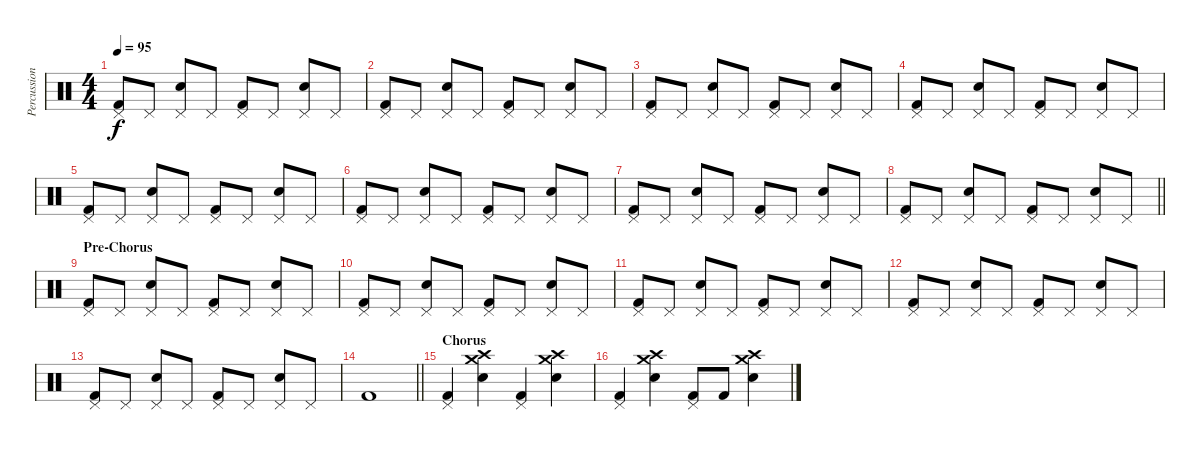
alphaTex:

\track ("Percussion" "Percussion") {instrument percussion}
\staff {score}
\articulation defaults
\ts (4 4)
\tempo 95
\clef neutral
\ks c
("Pedal Hi-Hat (hit)" "Kick (hit) 2").8{dy f} "Pedal Hi-Hat (hit)".8 ("Pedal Hi-Hat (hit)" "Snare (hit) 2").8 "Pedal Hi-Hat (hit)".8 ("Pedal Hi-Hat (hit)" "Kick (hit) 2").8 "Pedal Hi-Hat (hit)".8 ("Pedal Hi-Hat (hit)" "Snare (hit) 2").8 "Pedal Hi-Hat (hit)".8 |
("Pedal Hi-Hat (hit)" "Kick (hit) 2").8 "Pedal Hi-Hat (hit)".8 ("Pedal Hi-Hat (hit)" "Snare (hit) 2").8 "Pedal Hi-Hat (hit)".8 ("Pedal Hi-Hat (hit)" "Kick (hit) 2").8 "Pedal Hi-Hat (hit)".8 ("Pedal Hi-Hat (hit)" "Snare (hit) 2").8 "Pedal Hi-Hat (hit)".8 |
("Pedal Hi-Hat (hit)" "Kick (hit) 2").8 "Pedal Hi-Hat (hit)".8 ("Pedal Hi-Hat (hit)" "Snare (hit) 2").8 "Pedal Hi-Hat (hit)".8 ("Pedal Hi-Hat (hit)" "Kick (hit) 2").8 "Pedal Hi-Hat (hit)".8 ("Pedal Hi-Hat (hit)" "Snare (hit) 2").8 "Pedal Hi-Hat (hit)".8 |
("Pedal Hi-Hat (hit)" "Kick (hit) 2").8 "Pedal Hi-Hat (hit)".8 ("Pedal Hi-Hat (hit)" "Snare (hit) 2").8 "Pedal Hi-Hat (hit)".8 ("Pedal Hi-Hat (hit)" "Kick (hit) 2").8 "Pedal Hi-Hat (hit)".8 ("Pedal Hi-Hat (hit)" "Snare (hit) 2").8 "Pedal Hi-Hat (hit)".8 |
("Pedal Hi-Hat (hit)" "Kick (hit) 2").8 "Pedal Hi-Hat (hit)".8 ("Pedal Hi-Hat (hit)" "Snare (hit) 2").8 "Pedal Hi-Hat (hit)".8 ("Pedal Hi-Hat (hit)" "Kick (hit) 2").8 "Pedal Hi-Hat (hit)".8 ("Pedal Hi-Hat (hit)" "Snare (hit) 2").8 "Pedal Hi-Hat (hit)".8 |
("Pedal Hi-Hat (hit)" "Kick (hit) 2").8 "Pedal Hi-Hat (hit)".8 ("Pedal Hi-Hat (hit)" "Snare (hit) 2").8 "Pedal Hi-Hat (hit)".8 ("Pedal Hi-Hat (hit)" "Kick (hit) 2").8 "Pedal Hi-Hat (hit)".8 ("Pedal Hi-Hat (hit)" "Snare (hit) 2").8 "Pedal Hi-Hat (hit)".8 |
("Pedal Hi-Hat (hit)" "Kick (hit) 2").8 "Pedal Hi-Hat (hit)".8 ("Pedal Hi-Hat (hit)" "Snare (hit) 2").8 "Pedal Hi-Hat (hit)".8 ("Pedal Hi-Hat (hit)" "Kick (hit) 2").8 "Pedal Hi-Hat (hit)".8 ("Pedal Hi-Hat (hit)" "Snare (hit) 2").8 "Pedal Hi-Hat (hit)".8 |
\barLineRight lightlight
("Pedal Hi-Hat (hit)" "Kick (hit) 2").8 "Pedal Hi-Hat (hit)".8 ("Pedal Hi-Hat (hit)" "Snare (hit) 2").8 "Pedal Hi-Hat (hit)".8 ("Pedal Hi-Hat (hit)" "Kick (hit) 2").8 "Pedal Hi-Hat (hit)".8 ("Pedal Hi-Hat (hit)" "Snare (hit) 2").8 "Pedal Hi-Hat (hit)".8 |
\section ("" "Pre-Chorus")
("Pedal Hi-Hat (hit)" "Kick (hit) 2").8 "Pedal Hi-Hat (hit)".8 ("Pedal Hi-Hat (hit)" "Snare (hit) 2").8 "Pedal Hi-Hat (hit)".8 ("Pedal Hi-Hat (hit)" "Kick (hit) 2").8 "Pedal Hi-Hat (hit)".8 ("Pedal Hi-Hat (hit)" "Snare (hit) 2").8 "Pedal Hi-Hat (hit)".8 |
("Pedal Hi-Hat (hit)" "Kick (hit) 2").8 "Pedal Hi-Hat (hit)".8 ("Pedal Hi-Hat (hit)" "Snare (hit) 2").8 "Pedal Hi-Hat (hit)".8 ("Pedal Hi-Hat (hit)" "Kick (hit) 2").8 "Pedal Hi-Hat (hit)".8 ("Pedal Hi-Hat (hit)" "Snare (hit) 2").8 "Pedal Hi-Hat (hit)".8 |
("Pedal Hi-Hat (hit)" "Kick (hit) 2").8 "Pedal Hi-Hat (hit)".8 ("Pedal Hi-Hat (hit)" "Snare (hit) 2").8 "Pedal Hi-Hat (hit)".8 ("Pedal Hi-Hat (hit)" "Kick (hit) 2").8 "Pedal Hi-Hat (hit)".8 ("Pedal Hi-Hat (hit)" "Snare (hit) 2").8 "Pedal Hi-Hat (hit)".8 |
("Pedal Hi-Hat (hit)" "Kick (hit) 2").8 "Pedal Hi-Hat (hit)".8 ("Pedal Hi-Hat (hit)" "Snare (hit) 2").8 "Pedal Hi-Hat (hit)".8 ("Pedal Hi-Hat (hit)" "Kick (hit) 2").8 "Pedal Hi-Hat (hit)".8 ("Pedal Hi-Hat (hit)" "Snare (hit) 2").8 "Pedal Hi-Hat (hit)".8 |
("Pedal Hi-Hat (hit)" "Kick (hit) 2").8 "Pedal Hi-Hat (hit)".8 ("Pedal Hi-Hat (hit)" "Snare (hit) 2").8 "Pedal Hi-Hat (hit)".8 ("Pedal Hi-Hat (hit)" "Kick (hit) 2").8 "Pedal Hi-Hat (hit)".8 ("Pedal Hi-Hat (hit)" "Snare (hit) 2").8 "Pedal Hi-Hat (hit)".8 |
\barLineRight lightlight "Kick (hit) 2".1
|
\section ("" "Chorus")
("Pedal Hi-Hat (hit)" "Kick (hit) 2").4 ("Crash high (hit)" "Crash medium (hit)" "Snare (hit) 2").4 ("Pedal Hi-Hat (hit)" "Kick (hit) 2").4 ("Crash high (hit)" "Crash medium (hit)" "Snare (hit) 2").4 |
("Pedal Hi-Hat (hit)" "Kick (hit) 2").4 ("Crash high (hit)" "Crash medium (hit)" "Snare (hit) 2").4 ("Pedal Hi-Hat (hit)" "Kick (hit) 2").8 "Kick (hit) 2".8 ("Crash high (hit)" "Crash medium (hit)" "Snare (hit) 2").4
